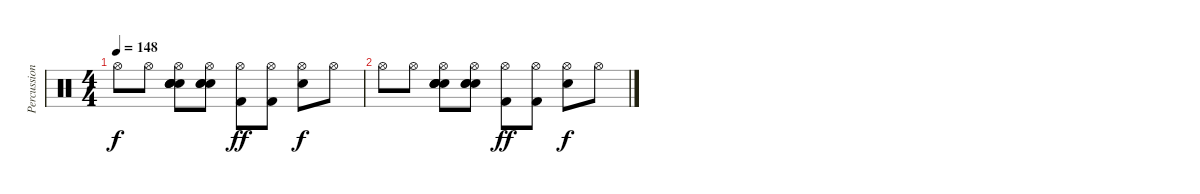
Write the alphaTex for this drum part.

\track ("Percussion" "Percussion") {instrument percussion}
\staff {score}
\articulation defaults
\ts (4 4)
\tempo 148
\clef neutral
\ks c "Hi-Hat (open)".8{dy f} "Hi-Hat (open)".8
("Electric Snare (hit)" "Hand Clap (hit)" "Hand Clap (hit)" "Hand Clap (hit)" "Hi-Hat (open)").8 ("Hand Clap (hit)" "Hand Clap (hit)" "Hand Clap (hit)" "Hi-Hat (open)").8 ("Kick (hit) 2" "Hi-Hat (open)").8{dy ff} ("Kick (hit) 2" "Hi-Hat (open)").8 ("Electric Snare (hit)" "Hi-Hat (open)").8{dy f} "Hi-Hat (open)".8 |
"Hi-Hat (open)".8 "Hi-Hat (open)".8 ("Electric Snare (hit)" "Hand Clap (hit)" "Hand Clap (hit)" "Hand Clap (hit)" "Hi-Hat (open)").8 ("Hand Clap (hit)" "Hand Clap (hit)" "Hand Clap (hit)" "Hi-Hat (open)").8 ("Kick (hit) 2" "Hi-Hat (open)").8{dy ff} ("Kick (hit) 2" "Hi-Hat (open)").8 ("Electric Snare (hit)" "Hi-Hat (open)").8{dy f} "Hi-Hat (open)".8
